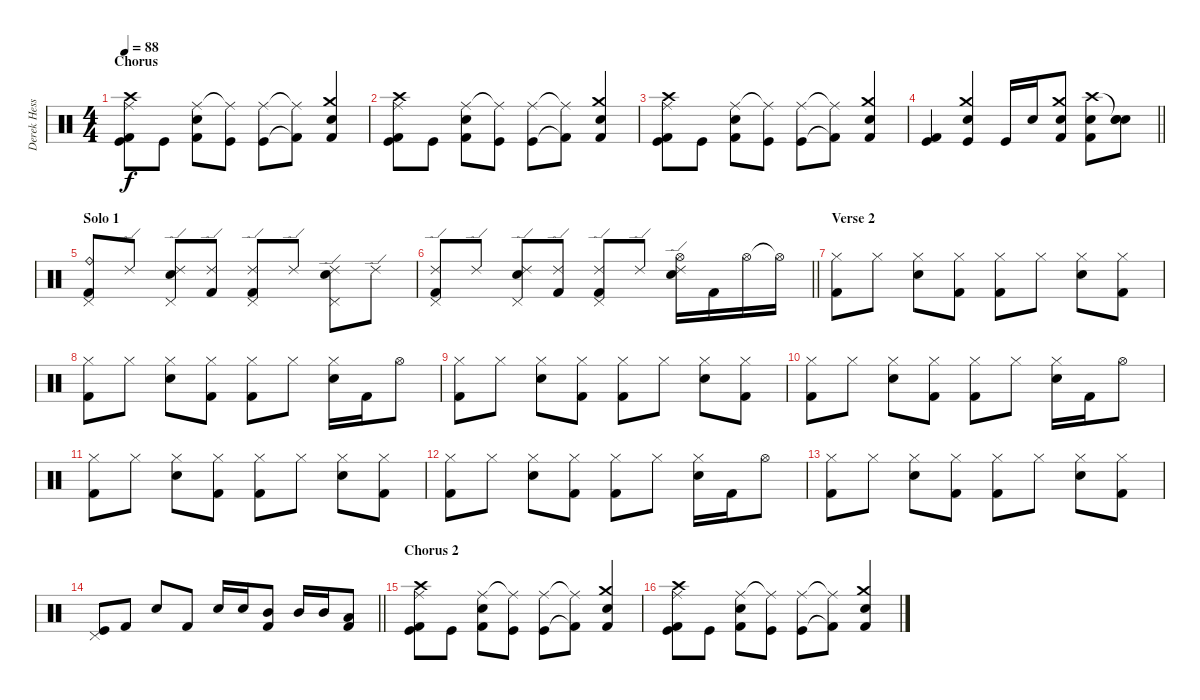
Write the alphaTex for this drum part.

\track ("Derek Hess" "Derek Hess") {instrument percussion}
\staff {score}
\articulation defaults
\ts (4 4)
\section ("" "Chorus")
\tempo 88
\clef neutral
\ks c
("Crash high (hit)" "Ride (middle)" "Kick (hit) 2" "Kick (hit)").8{dy f} "Kick (hit)".8 ("Ride (middle)" "Electric Snare (hit)" "Kick (hit) 2").8 ("Ride (middle)"{t} "Kick (hit)").8 ("Ride (middle)" "Kick (hit)").8 ("Ride (middle)"{t} "Kick (hit) 2"{t}).8 ("Crash medium (hit)" "Snare (hit) 2" "Kick (hit) 2").4 |
("Crash high (hit)" "Ride (middle)" "Kick (hit) 2" "Kick (hit)").8 "Kick (hit)".8 ("Ride (middle)" "Electric Snare (hit)" "Kick (hit) 2").8 ("Ride (middle)"{t} "Kick (hit)").8 ("Ride (middle)" "Kick (hit)").8 ("Ride (middle)"{t} "Kick (hit) 2"{t}).8 ("Crash medium (hit)" "Snare (hit) 2" "Kick (hit) 2").4 |
("Crash high (hit)" "Ride (middle)" "Kick (hit) 2" "Kick (hit)").8 "Kick (hit)".8 ("Ride (middle)" "Electric Snare (hit)" "Kick (hit) 2").8 ("Ride (middle)"{t} "Kick (hit)").8 ("Ride (middle)" "Kick (hit)").8 ("Ride (middle)"{t} "Kick (hit) 2"{t}).8 ("Crash medium (hit)" "Snare (hit) 2" "Kick (hit) 2").4 |
\barLineRight lightlight
("Kick (hit) 2" "Kick (hit)").4 ("Crash medium (hit)" "Snare (hit) 2" "Kick (hit)").4 "Kick (hit)".16 "Electric Snare (hit)".16 ("Crash medium (hit)" "Snare (hit) 2" "Kick (hit) 2").8 ("Crash high (hit)" "Snare (hit) 2" "Kick (hit) 2").8 ("Snare (hit)"{t} "Electric Snare (hit)" "Snare (hit) 2").8 |
\section ("" "Solo 1")
("Ride (bell)" "Pedal Hi-Hat (hit)" "Kick (hit) 2").8 "Ride (edge) 2".8 ("Ride (edge) 2" "Pedal Hi-Hat (hit)" "Electric Snare (hit)").8 ("Ride (edge) 2" "Kick (hit) 2").8 ("Ride (edge) 2" "Pedal Hi-Hat (hit)" "Kick (hit) 2").8 "Ride (edge) 2".8 ("Ride (edge) 2" "Pedal Hi-Hat (hit)" "Electric Snare (hit)").8 "Ride (edge) 2".8 |
\barLineRight lightlight
("Ride (edge) 2" "Pedal Hi-Hat (hit)" "Kick (hit) 2").8 "Ride (edge) 2".8 ("Ride (edge) 2" "Pedal Hi-Hat (hit)" "Electric Snare (hit)").8 ("Ride (edge) 2" "Kick (hit) 2").8 ("Ride (edge) 2" "Pedal Hi-Hat (hit)" "Kick (hit) 2").8 "Ride (edge) 2".8 ("Ride (edge) 2" "Hi-Hat (open)" "Electric Snare (hit)").16 "Kick (hit) 2".16 "Hi-Hat (open)".16 "Hi-Hat (open)"{t}.16 |
\section ("" "Verse 2")
("Hi-Hat (closed)" "Kick (hit) 2").8 "Hi-Hat (closed)".8 ("Electric Snare (hit)" "Hi-Hat (closed)").8 ("Hi-Hat (closed)" "Kick (hit) 2").8 ("Hi-Hat (closed)" "Kick (hit) 2").8 "Hi-Hat (closed)".8 ("Electric Snare (hit)" "Hi-Hat (closed)").8 ("Hi-Hat (closed)" "Kick (hit) 2").8 |
("Hi-Hat (closed)" "Kick (hit) 2").8 "Hi-Hat (closed)".8 ("Electric Snare (hit)" "Hi-Hat (closed)").8 ("Hi-Hat (closed)" "Kick (hit) 2").8 ("Hi-Hat (closed)" "Kick (hit) 2").8 "Hi-Hat (closed)".8 ("Electric Snare (hit)" "Hi-Hat (closed)").16 "Kick (hit) 2".16 "Hi-Hat (open)".8 |
("Hi-Hat (closed)" "Kick (hit) 2").8 "Hi-Hat (closed)".8 ("Electric Snare (hit)" "Hi-Hat (closed)").8 ("Hi-Hat (closed)" "Kick (hit) 2").8 ("Hi-Hat (closed)" "Kick (hit) 2").8 "Hi-Hat (closed)".8 ("Electric Snare (hit)" "Hi-Hat (closed)").8 ("Hi-Hat (closed)" "Kick (hit) 2").8 |
("Hi-Hat (closed)" "Kick (hit) 2").8 "Hi-Hat (closed)".8 ("Electric Snare (hit)" "Hi-Hat (closed)").8 ("Hi-Hat (closed)" "Kick (hit) 2").8 ("Hi-Hat (closed)" "Kick (hit) 2").8 "Hi-Hat (closed)".8 ("Electric Snare (hit)" "Hi-Hat (closed)").16 "Kick (hit) 2".16 "Hi-Hat (open)".8 |
("Hi-Hat (closed)" "Kick (hit) 2").8 "Hi-Hat (closed)".8 ("Electric Snare (hit)" "Hi-Hat (closed)").8 ("Hi-Hat (closed)" "Kick (hit) 2").8 ("Hi-Hat (closed)" "Kick (hit) 2").8 "Hi-Hat (closed)".8 ("Electric Snare (hit)" "Hi-Hat (closed)").8 ("Hi-Hat (closed)" "Kick (hit) 2").8 |
("Hi-Hat (closed)" "Kick (hit) 2").8 "Hi-Hat (closed)".8 ("Electric Snare (hit)" "Hi-Hat (closed)").8 ("Hi-Hat (closed)" "Kick (hit) 2").8 ("Hi-Hat (closed)" "Kick (hit) 2").8 "Hi-Hat (closed)".8 ("Electric Snare (hit)" "Hi-Hat (closed)").16 "Kick (hit) 2".16 "Hi-Hat (open)".8 |
("Hi-Hat (closed)" "Kick (hit) 2").8 "Hi-Hat (closed)".8 ("Electric Snare (hit)" "Hi-Hat (closed)").8 ("Hi-Hat (closed)" "Kick (hit) 2").8 ("Hi-Hat (closed)" "Kick (hit) 2").8 "Hi-Hat (closed)".8 ("Electric Snare (hit)" "Hi-Hat (closed)").8 ("Hi-Hat (closed)" "Kick (hit) 2").8 |
\barLineRight lightlight
("Pedal Hi-Hat (hit)" "Kick (hit)").8 "Kick (hit) 2".8 "Electric Snare (hit)".8 "Kick (hit) 2".8 "Electric Snare (hit)".16 "Electric Snare (hit)".16 ("Mid Tom (hit)" "Kick (hit) 2").8 "Mid Tom (hit)".16 "Mid Tom (hit)".16 ("Low Tom (hit)" "Kick (hit) 2").8 |
\section ("" "Chorus 2")
("Crash high (hit)" "Ride (middle)" "Kick (hit) 2" "Kick (hit)").8 "Kick (hit)".8 ("Ride (middle)" "Electric Snare (hit)" "Kick (hit) 2").8 ("Ride (middle)"{t} "Kick (hit)").8 ("Ride (middle)" "Kick (hit)").8 ("Ride (middle)"{t} "Kick (hit) 2"{t}).8 ("Crash medium (hit)" "Snare (hit) 2" "Kick (hit) 2").4 |
("Crash high (hit)" "Ride (middle)" "Kick (hit) 2" "Kick (hit)").8 "Kick (hit)".8 ("Ride (middle)" "Electric Snare (hit)" "Kick (hit) 2").8 ("Ride (middle)"{t} "Kick (hit)").8 ("Ride (middle)" "Kick (hit)").8 ("Ride (middle)"{t} "Kick (hit) 2"{t}).8 ("Crash medium (hit)" "Snare (hit) 2" "Kick (hit) 2").4
